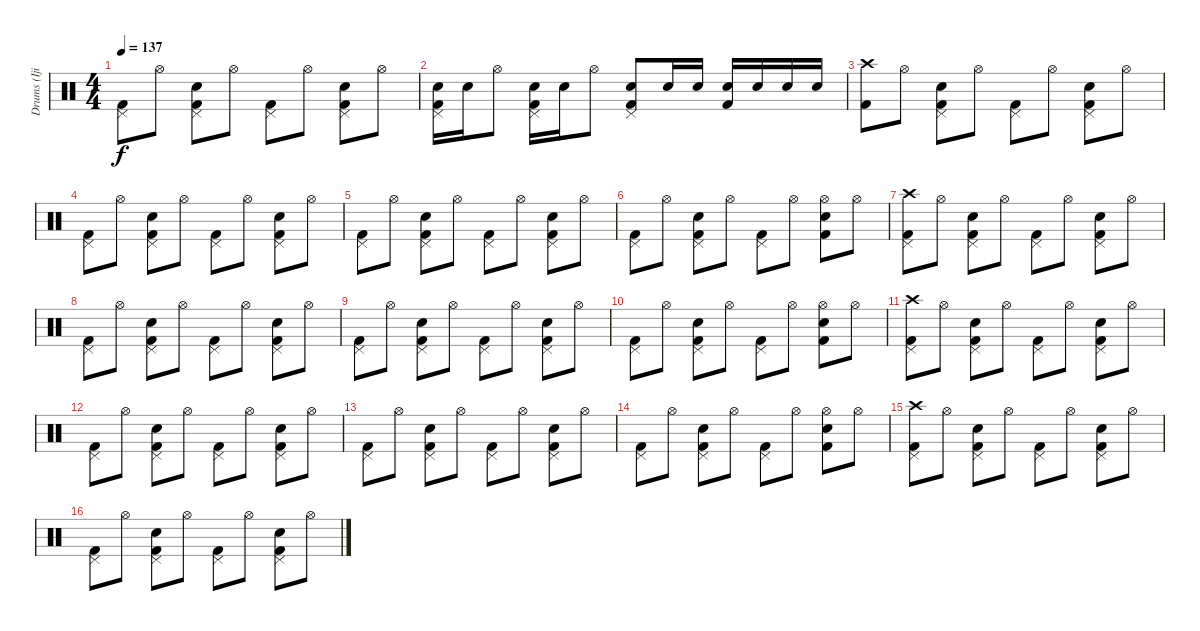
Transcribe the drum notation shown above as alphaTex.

\track ("Drums (Ijichi)" "Drums (Iji") {instrument percussion}
\staff {score}
\articulation defaults
\ts (4 4)
\tempo 137
\clef neutral
\ks c
("Pedal Hi-Hat (hit)" "Kick (hit) 2").8{dy f} "Hi-Hat (open)".8 ("Pedal Hi-Hat (hit)" "Snare (hit) 2" "Kick (hit) 2").8 "Hi-Hat (open)".8 ("Pedal Hi-Hat (hit)" "Kick (hit) 2").8 "Hi-Hat (open)".8 ("Pedal Hi-Hat (hit)" "Snare (hit) 2" "Kick (hit) 2").8 "Hi-Hat (open)".8 |
("Pedal Hi-Hat (hit)" "Snare (hit) 2" "Kick (hit) 2").16 "Snare (hit) 2".16 "Hi-Hat (open)".8 ("Pedal Hi-Hat (hit)" "Snare (hit) 2" "Kick (hit) 2").16 "Snare (hit) 2".16 "Hi-Hat (open)".8 ("Pedal Hi-Hat (hit)" "Snare (hit) 2" "Kick (hit) 2").8 "Snare (hit) 2".16 "Snare (hit) 2".16 ("Snare (hit) 2" "Kick (hit) 2").16 "Snare (hit) 2".16 "Snare (hit) 2".16 "Snare (hit) 2".16 |
("Crash high (hit)" "Kick (hit) 2").8 "Hi-Hat (open)".8 ("Pedal Hi-Hat (hit)" "Snare (hit) 2" "Kick (hit) 2").8 "Hi-Hat (open)".8 ("Pedal Hi-Hat (hit)" "Kick (hit) 2").8 "Hi-Hat (open)".8 ("Pedal Hi-Hat (hit)" "Snare (hit) 2" "Kick (hit) 2").8 "Hi-Hat (open)".8 |
("Pedal Hi-Hat (hit)" "Kick (hit) 2").8 "Hi-Hat (open)".8 ("Pedal Hi-Hat (hit)" "Snare (hit) 2" "Kick (hit) 2").8 "Hi-Hat (open)".8 ("Pedal Hi-Hat (hit)" "Kick (hit) 2").8 "Hi-Hat (open)".8 ("Pedal Hi-Hat (hit)" "Snare (hit) 2" "Kick (hit) 2").8 "Hi-Hat (open)".8 |
("Pedal Hi-Hat (hit)" "Kick (hit) 2").8 "Hi-Hat (open)".8 ("Pedal Hi-Hat (hit)" "Snare (hit) 2" "Kick (hit) 2").8 "Hi-Hat (open)".8 ("Pedal Hi-Hat (hit)" "Kick (hit) 2").8 "Hi-Hat (open)".8 ("Pedal Hi-Hat (hit)" "Snare (hit) 2" "Kick (hit) 2").8 "Hi-Hat (open)".8 |
("Pedal Hi-Hat (hit)" "Kick (hit) 2").8 "Hi-Hat (open)".8 ("Pedal Hi-Hat (hit)" "Snare (hit) 2" "Kick (hit) 2").8 "Hi-Hat (open)".8 ("Pedal Hi-Hat (hit)" "Kick (hit) 2").8 "Hi-Hat (open)".8 ("Hi-Hat (open)" "Snare (hit) 2" "Kick (hit) 2").8 "Hi-Hat (open)".8 |
("Crash high (hit)" "Pedal Hi-Hat (hit)" "Kick (hit) 2").8 "Hi-Hat (open)".8 ("Pedal Hi-Hat (hit)" "Snare (hit) 2" "Kick (hit) 2").8 "Hi-Hat (open)".8 ("Pedal Hi-Hat (hit)" "Kick (hit) 2").8 "Hi-Hat (open)".8 ("Pedal Hi-Hat (hit)" "Snare (hit) 2" "Kick (hit) 2").8 "Hi-Hat (open)".8 |
("Pedal Hi-Hat (hit)" "Kick (hit) 2").8 "Hi-Hat (open)".8 ("Pedal Hi-Hat (hit)" "Snare (hit) 2" "Kick (hit) 2").8 "Hi-Hat (open)".8 ("Pedal Hi-Hat (hit)" "Kick (hit) 2").8 "Hi-Hat (open)".8 ("Pedal Hi-Hat (hit)" "Snare (hit) 2" "Kick (hit) 2").8 "Hi-Hat (open)".8 |
("Pedal Hi-Hat (hit)" "Kick (hit) 2").8 "Hi-Hat (open)".8 ("Pedal Hi-Hat (hit)" "Snare (hit) 2" "Kick (hit) 2").8 "Hi-Hat (open)".8 ("Pedal Hi-Hat (hit)" "Kick (hit) 2").8 "Hi-Hat (open)".8 ("Pedal Hi-Hat (hit)" "Snare (hit) 2" "Kick (hit) 2").8 "Hi-Hat (open)".8 |
("Pedal Hi-Hat (hit)" "Kick (hit) 2").8 "Hi-Hat (open)".8 ("Pedal Hi-Hat (hit)" "Snare (hit) 2" "Kick (hit) 2").8 "Hi-Hat (open)".8 ("Pedal Hi-Hat (hit)" "Kick (hit) 2").8 "Hi-Hat (open)".8 ("Hi-Hat (open)" "Snare (hit) 2" "Kick (hit) 2").8 "Hi-Hat (open)".8 |
("Crash high (hit)" "Pedal Hi-Hat (hit)" "Kick (hit) 2").8 "Hi-Hat (open)".8 ("Pedal Hi-Hat (hit)" "Snare (hit) 2" "Kick (hit) 2").8 "Hi-Hat (open)".8 ("Pedal Hi-Hat (hit)" "Kick (hit) 2").8 "Hi-Hat (open)".8 ("Pedal Hi-Hat (hit)" "Snare (hit) 2" "Kick (hit) 2").8 "Hi-Hat (open)".8 |
("Pedal Hi-Hat (hit)" "Kick (hit) 2").8 "Hi-Hat (open)".8 ("Pedal Hi-Hat (hit)" "Snare (hit) 2" "Kick (hit) 2").8 "Hi-Hat (open)".8 ("Pedal Hi-Hat (hit)" "Kick (hit) 2").8 "Hi-Hat (open)".8 ("Pedal Hi-Hat (hit)" "Snare (hit) 2" "Kick (hit) 2").8 "Hi-Hat (open)".8 |
("Pedal Hi-Hat (hit)" "Kick (hit) 2").8 "Hi-Hat (open)".8 ("Pedal Hi-Hat (hit)" "Snare (hit) 2" "Kick (hit) 2").8 "Hi-Hat (open)".8 ("Pedal Hi-Hat (hit)" "Kick (hit) 2").8 "Hi-Hat (open)".8 ("Pedal Hi-Hat (hit)" "Snare (hit) 2" "Kick (hit) 2").8 "Hi-Hat (open)".8 |
("Pedal Hi-Hat (hit)" "Kick (hit) 2").8 "Hi-Hat (open)".8 ("Pedal Hi-Hat (hit)" "Snare (hit) 2" "Kick (hit) 2").8 "Hi-Hat (open)".8 ("Pedal Hi-Hat (hit)" "Kick (hit) 2").8 "Hi-Hat (open)".8 ("Hi-Hat (open)" "Snare (hit) 2" "Kick (hit) 2").8 "Hi-Hat (open)".8 |
("Crash high (hit)" "Pedal Hi-Hat (hit)" "Kick (hit) 2").8 "Hi-Hat (open)".8 ("Pedal Hi-Hat (hit)" "Snare (hit) 2" "Kick (hit) 2").8 "Hi-Hat (open)".8 ("Pedal Hi-Hat (hit)" "Kick (hit) 2").8 "Hi-Hat (open)".8 ("Pedal Hi-Hat (hit)" "Snare (hit) 2" "Kick (hit) 2").8 "Hi-Hat (open)".8 |
("Pedal Hi-Hat (hit)" "Kick (hit) 2").8 "Hi-Hat (open)".8 ("Pedal Hi-Hat (hit)" "Snare (hit) 2" "Kick (hit) 2").8 "Hi-Hat (open)".8 ("Pedal Hi-Hat (hit)" "Kick (hit) 2").8 "Hi-Hat (open)".8 ("Pedal Hi-Hat (hit)" "Snare (hit) 2" "Kick (hit) 2").8 "Hi-Hat (open)".8
